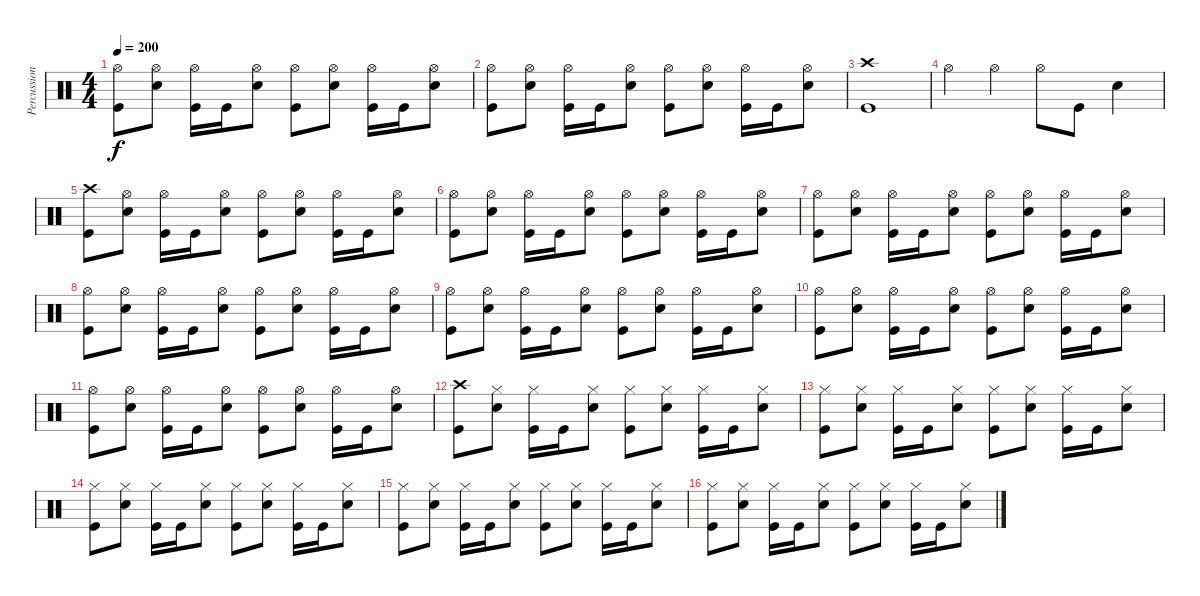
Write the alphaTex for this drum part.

\track ("Percussion" "Percussion") {instrument percussion}
\staff {score}
\articulation defaults
\ts (4 4)
\tempo 200
\clef neutral
\ks c
("Hi-Hat (open)" "Kick (hit)").8{dy f} ("Hi-Hat (open)" "Electric Snare (hit)").8 ("Hi-Hat (open)" "Kick (hit)").16 "Kick (hit)".16 ("Hi-Hat (open)" "Electric Snare (hit)").8 ("Hi-Hat (open)" "Kick (hit)").8 ("Hi-Hat (open)" "Electric Snare (hit)").8 ("Hi-Hat (open)" "Kick (hit)").16 "Kick (hit)".16 ("Hi-Hat (open)" "Electric Snare (hit)").8 |
("Hi-Hat (open)" "Kick (hit)").8 ("Hi-Hat (open)" "Electric Snare (hit)").8 ("Hi-Hat (open)" "Kick (hit)").16 "Kick (hit)".16 ("Hi-Hat (open)" "Electric Snare (hit)").8 ("Hi-Hat (open)" "Kick (hit)").8 ("Hi-Hat (open)" "Electric Snare (hit)").8 ("Hi-Hat (open)" "Kick (hit)").16 "Kick (hit)".16 ("Hi-Hat (open)" "Electric Snare (hit)").8 |
("Crash high (hit)" "Kick (hit)").1 |
"Hi-Hat (open)".4 "Hi-Hat (open)".4 "Hi-Hat (open)".8 "Kick (hit)".8 "Electric Snare (hit)".4 |
("Crash high (hit)" "Kick (hit)").8 ("Hi-Hat (open)" "Electric Snare (hit)").8 ("Hi-Hat (open)" "Kick (hit)").16 "Kick (hit)".16 ("Hi-Hat (open)" "Electric Snare (hit)").8 ("Hi-Hat (open)" "Kick (hit)").8 ("Hi-Hat (open)" "Electric Snare (hit)").8 ("Hi-Hat (open)" "Kick (hit)").16 "Kick (hit)".16 ("Hi-Hat (open)" "Electric Snare (hit)").8 |
("Hi-Hat (open)" "Kick (hit)").8 ("Hi-Hat (open)" "Electric Snare (hit)").8 ("Hi-Hat (open)" "Kick (hit)").16 "Kick (hit)".16 ("Hi-Hat (open)" "Electric Snare (hit)").8 ("Hi-Hat (open)" "Kick (hit)").8 ("Hi-Hat (open)" "Electric Snare (hit)").8 ("Hi-Hat (open)" "Kick (hit)").16 "Kick (hit)".16 ("Hi-Hat (open)" "Electric Snare (hit)").8 |
("Hi-Hat (open)" "Kick (hit)").8 ("Hi-Hat (open)" "Electric Snare (hit)").8 ("Hi-Hat (open)" "Kick (hit)").16 "Kick (hit)".16 ("Hi-Hat (open)" "Electric Snare (hit)").8 ("Hi-Hat (open)" "Kick (hit)").8 ("Hi-Hat (open)" "Electric Snare (hit)").8 ("Hi-Hat (open)" "Kick (hit)").16 "Kick (hit)".16 ("Hi-Hat (open)" "Electric Snare (hit)").8 |
("Hi-Hat (open)" "Kick (hit)").8 ("Hi-Hat (open)" "Electric Snare (hit)").8 ("Hi-Hat (open)" "Kick (hit)").16 "Kick (hit)".16 ("Hi-Hat (open)" "Electric Snare (hit)").8 ("Hi-Hat (open)" "Kick (hit)").8 ("Hi-Hat (open)" "Electric Snare (hit)").8 ("Hi-Hat (open)" "Kick (hit)").16 "Kick (hit)".16 ("Hi-Hat (open)" "Electric Snare (hit)").8 |
("Hi-Hat (open)" "Kick (hit)").8 ("Hi-Hat (open)" "Electric Snare (hit)").8 ("Hi-Hat (open)" "Kick (hit)").16 "Kick (hit)".16 ("Hi-Hat (open)" "Electric Snare (hit)").8 ("Hi-Hat (open)" "Kick (hit)").8 ("Hi-Hat (open)" "Electric Snare (hit)").8 ("Hi-Hat (open)" "Kick (hit)").16 "Kick (hit)".16 ("Hi-Hat (open)" "Electric Snare (hit)").8 |
("Hi-Hat (open)" "Kick (hit)").8 ("Hi-Hat (open)" "Electric Snare (hit)").8 ("Hi-Hat (open)" "Kick (hit)").16 "Kick (hit)".16 ("Hi-Hat (open)" "Electric Snare (hit)").8 ("Hi-Hat (open)" "Kick (hit)").8 ("Hi-Hat (open)" "Electric Snare (hit)").8 ("Hi-Hat (open)" "Kick (hit)").16 "Kick (hit)".16 ("Hi-Hat (open)" "Electric Snare (hit)").8 |
("Hi-Hat (open)" "Kick (hit)").8 ("Hi-Hat (open)" "Electric Snare (hit)").8 ("Hi-Hat (open)" "Kick (hit)").16 "Kick (hit)".16 ("Hi-Hat (open)" "Electric Snare (hit)").8 ("Hi-Hat (open)" "Kick (hit)").8 ("Hi-Hat (open)" "Electric Snare (hit)").8 ("Hi-Hat (open)" "Kick (hit)").16 "Kick (hit)".16 ("Hi-Hat (open)" "Electric Snare (hit)").8 |
("Crash high (hit)" "Kick (hit)").8 ("Hi-Hat (closed)" "Electric Snare (hit)").8 ("Hi-Hat (closed)" "Kick (hit)").16 "Kick (hit)".16 ("Hi-Hat (closed)" "Electric Snare (hit)").8 ("Hi-Hat (closed)" "Kick (hit)").8 ("Hi-Hat (closed)" "Electric Snare (hit)").8 ("Hi-Hat (closed)" "Kick (hit)").16 "Kick (hit)".16 ("Hi-Hat (closed)" "Electric Snare (hit)").8 |
("Hi-Hat (closed)" "Kick (hit)").8 ("Hi-Hat (closed)" "Electric Snare (hit)").8 ("Hi-Hat (closed)" "Kick (hit)").16 "Kick (hit)".16 ("Hi-Hat (closed)" "Electric Snare (hit)").8 ("Hi-Hat (closed)" "Kick (hit)").8 ("Hi-Hat (closed)" "Electric Snare (hit)").8 ("Hi-Hat (closed)" "Kick (hit)").16 "Kick (hit)".16 ("Hi-Hat (closed)" "Electric Snare (hit)").8 |
("Hi-Hat (closed)" "Kick (hit)").8 ("Hi-Hat (closed)" "Electric Snare (hit)").8 ("Hi-Hat (closed)" "Kick (hit)").16 "Kick (hit)".16 ("Hi-Hat (closed)" "Electric Snare (hit)").8 ("Hi-Hat (closed)" "Kick (hit)").8 ("Hi-Hat (closed)" "Electric Snare (hit)").8 ("Hi-Hat (closed)" "Kick (hit)").16 "Kick (hit)".16 ("Hi-Hat (closed)" "Electric Snare (hit)").8 |
("Hi-Hat (closed)" "Kick (hit)").8 ("Hi-Hat (closed)" "Electric Snare (hit)").8 ("Hi-Hat (closed)" "Kick (hit)").16 "Kick (hit)".16 ("Hi-Hat (closed)" "Electric Snare (hit)").8 ("Hi-Hat (closed)" "Kick (hit)").8 ("Hi-Hat (closed)" "Electric Snare (hit)").8 ("Hi-Hat (closed)" "Kick (hit)").16 "Kick (hit)".16 ("Hi-Hat (closed)" "Electric Snare (hit)").8 |
("Hi-Hat (closed)" "Kick (hit)").8 ("Hi-Hat (closed)" "Electric Snare (hit)").8 ("Hi-Hat (closed)" "Kick (hit)").16 "Kick (hit)".16 ("Hi-Hat (closed)" "Electric Snare (hit)").8 ("Hi-Hat (closed)" "Kick (hit)").8 ("Hi-Hat (closed)" "Electric Snare (hit)").8 ("Hi-Hat (closed)" "Kick (hit)").16 "Kick (hit)".16 ("Hi-Hat (closed)" "Electric Snare (hit)").8
